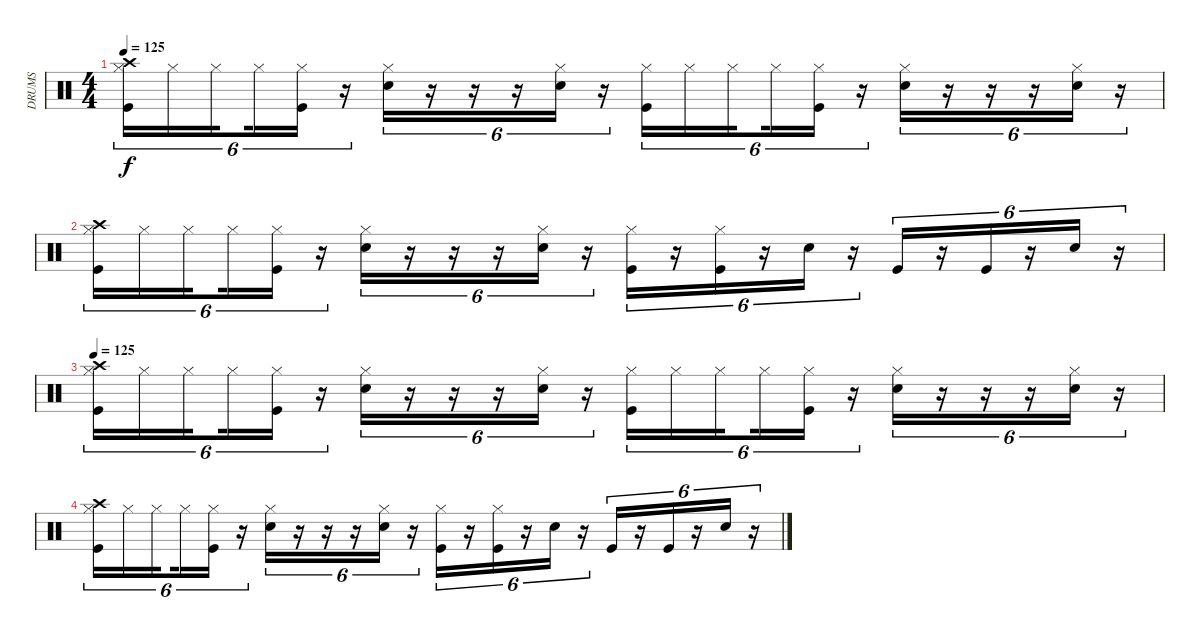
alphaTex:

\track ("DRUMS" "DRUMS") {instrument percussion}
\staff {score}
\articulation defaults
\ts (4 4)
\tempo 125
\clef neutral
\ks c
("Kick (hit)" "Hi-Hat (closed)" "Crash high (hit)").16{tu (6 4) dy f} "Hi-Hat (closed)".16{tu (6 4)} "Hi-Hat (closed)".16{tu (6 4) beam splitsecondary} "Hi-Hat (closed)".16{tu (6 4)} ("Kick (hit)" "Hi-Hat (closed)").16{tu (6 4)} r.16{tu (6 4)} ("Electric Snare (hit)" "Hi-Hat (closed)").16{tu (6 4)} r.16{tu (6 4)} r.16{tu (6 4)} r.16{tu (6 4)} ("Electric Snare (hit)" "Hi-Hat (closed)").16{tu (6 4)} r.16{tu (6 4)} ("Kick (hit)" "Hi-Hat (closed)").16{tu (6 4)} "Hi-Hat (closed)".16{tu (6 4)} "Hi-Hat (closed)".16{tu (6 4) beam splitsecondary} "Hi-Hat (closed)".16{tu (6 4)} ("Kick (hit)" "Hi-Hat (closed)").16{tu (6 4)} r.16{tu (6 4)} ("Electric Snare (hit)" "Hi-Hat (closed)").16{tu (6 4)} r.16{tu (6 4)} r.16{tu (6 4)} r.16{tu (6 4)} ("Electric Snare (hit)" "Hi-Hat (closed)").16{tu (6 4)} r.16{tu (6 4)} |
("Kick (hit)" "Hi-Hat (closed)" "Crash high (hit)").16{tu (6 4)} "Hi-Hat (closed)".16{tu (6 4)} "Hi-Hat (closed)".16{tu (6 4) beam splitsecondary} "Hi-Hat (closed)".16{tu (6 4)} ("Kick (hit)" "Hi-Hat (closed)").16{tu (6 4)} r.16{tu (6 4)} ("Electric Snare (hit)" "Hi-Hat (closed)").16{tu (6 4)} r.16{tu (6 4)} r.16{tu (6 4)} r.16{tu (6 4)} ("Electric Snare (hit)" "Hi-Hat (closed)").16{tu (6 4)} r.16{tu (6 4)} ("Kick (hit)" "Hi-Hat (closed)").16{tu (6 4)} r.16{tu (6 4)} ("Kick (hit)" "Hi-Hat (closed)").16{tu (6 4)} r.16{tu (6 4)} "Electric Snare (hit)".16{tu (6 4)} r.16{tu (6 4)} "Kick (hit)".16{tu (6 4)} r.16{tu (6 4)} "Kick (hit)".16{tu (6 4)} r.16{tu (6 4)} "Electric Snare (hit)".16{tu (6 4)} r.16{tu (6 4)} |
\tempo 125
("Kick (hit)" "Hi-Hat (closed)" "Crash high (hit)").16{tu (6 4)} "Hi-Hat (closed)".16{tu (6 4)} "Hi-Hat (closed)".16{tu (6 4) beam splitsecondary} "Hi-Hat (closed)".16{tu (6 4)} ("Kick (hit)" "Hi-Hat (closed)").16{tu (6 4)} r.16{tu (6 4)} ("Electric Snare (hit)" "Hi-Hat (closed)").16{tu (6 4)} r.16{tu (6 4)} r.16{tu (6 4)} r.16{tu (6 4)} ("Electric Snare (hit)" "Hi-Hat (closed)").16{tu (6 4)} r.16{tu (6 4)} ("Kick (hit)" "Hi-Hat (closed)").16{tu (6 4)} "Hi-Hat (closed)".16{tu (6 4)} "Hi-Hat (closed)".16{tu (6 4) beam splitsecondary} "Hi-Hat (closed)".16{tu (6 4)} ("Kick (hit)" "Hi-Hat (closed)").16{tu (6 4)} r.16{tu (6 4)} ("Electric Snare (hit)" "Hi-Hat (closed)").16{tu (6 4)} r.16{tu (6 4)} r.16{tu (6 4)} r.16{tu (6 4)} ("Electric Snare (hit)" "Hi-Hat (closed)").16{tu (6 4)} r.16{tu (6 4)} |
("Kick (hit)" "Hi-Hat (closed)" "Crash high (hit)").16{tu (6 4)} "Hi-Hat (closed)".16{tu (6 4)} "Hi-Hat (closed)".16{tu (6 4) beam splitsecondary} "Hi-Hat (closed)".16{tu (6 4)} ("Kick (hit)" "Hi-Hat (closed)").16{tu (6 4)} r.16{tu (6 4)} ("Electric Snare (hit)" "Hi-Hat (closed)").16{tu (6 4)} r.16{tu (6 4)} r.16{tu (6 4)} r.16{tu (6 4)} ("Electric Snare (hit)" "Hi-Hat (closed)").16{tu (6 4)} r.16{tu (6 4)} ("Kick (hit)" "Hi-Hat (closed)").16{tu (6 4)} r.16{tu (6 4)} ("Kick (hit)" "Hi-Hat (closed)").16{tu (6 4)} r.16{tu (6 4)} "Electric Snare (hit)".16{tu (6 4)} r.16{tu (6 4)} "Kick (hit)".16{tu (6 4)} r.16{tu (6 4)} "Kick (hit)".16{tu (6 4)} r.16{tu (6 4)} "Electric Snare (hit)".16{tu (6 4)} r.16{tu (6 4)}
